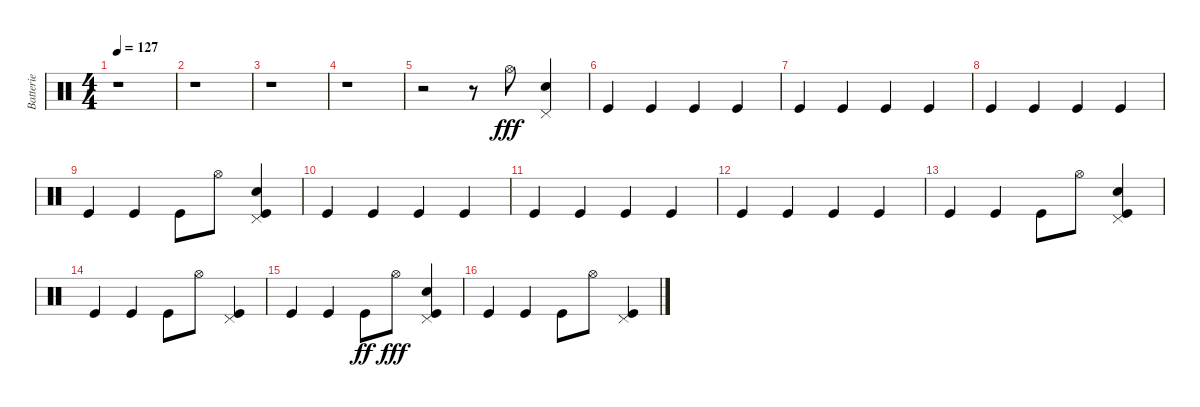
\track ("Batterie" "Batterie") {instrument percussion}
\staff {score}
\articulation defaults
\ts (4 4)
\tempo 127
\clef neutral
\ks c
r.1{dy f} |
r.1 |
r.1 |
r.1 |
r.2 r.8 "Hi-Hat (open)".8{dy fff} ("Snare (hit) 2" "Pedal Hi-Hat (hit)").4 |
"Kick (hit)".4 "Kick (hit)".4 "Kick (hit)".4 "Kick (hit)".4 |
"Kick (hit)".4 "Kick (hit)".4 "Kick (hit)".4 "Kick (hit)".4 |
"Kick (hit)".4 "Kick (hit)".4 "Kick (hit)".4 "Kick (hit)".4 |
"Kick (hit)".4 "Kick (hit)".4 "Kick (hit)".8 "Hi-Hat (open)".8 ("Snare (hit) 2" "Pedal Hi-Hat (hit)" "Kick (hit)").4 |
"Kick (hit)".4 "Kick (hit)".4 "Kick (hit)".4 "Kick (hit)".4 |
"Kick (hit)".4 "Kick (hit)".4 "Kick (hit)".4 "Kick (hit)".4 |
"Kick (hit)".4 "Kick (hit)".4 "Kick (hit)".4 "Kick (hit)".4 |
"Kick (hit)".4 "Kick (hit)".4 "Kick (hit)".8 "Hi-Hat (open)".8 ("Kick (hit)" "Snare (hit) 2" "Pedal Hi-Hat (hit)").4 |
"Kick (hit)".4 "Kick (hit)".4 "Kick (hit)".8 "Hi-Hat (open)".8 ("Pedal Hi-Hat (hit)" "Kick (hit)").4 |
"Kick (hit)".4 "Kick (hit)".4 "Kick (hit)".8{dy ff} "Hi-Hat (open)".8{dy fff} ("Kick (hit)" "Snare (hit) 2" "Pedal Hi-Hat (hit)").4 |
"Kick (hit)".4 "Kick (hit)".4 "Kick (hit)".8 "Hi-Hat (open)".8 ("Pedal Hi-Hat (hit)" "Kick (hit)").4
